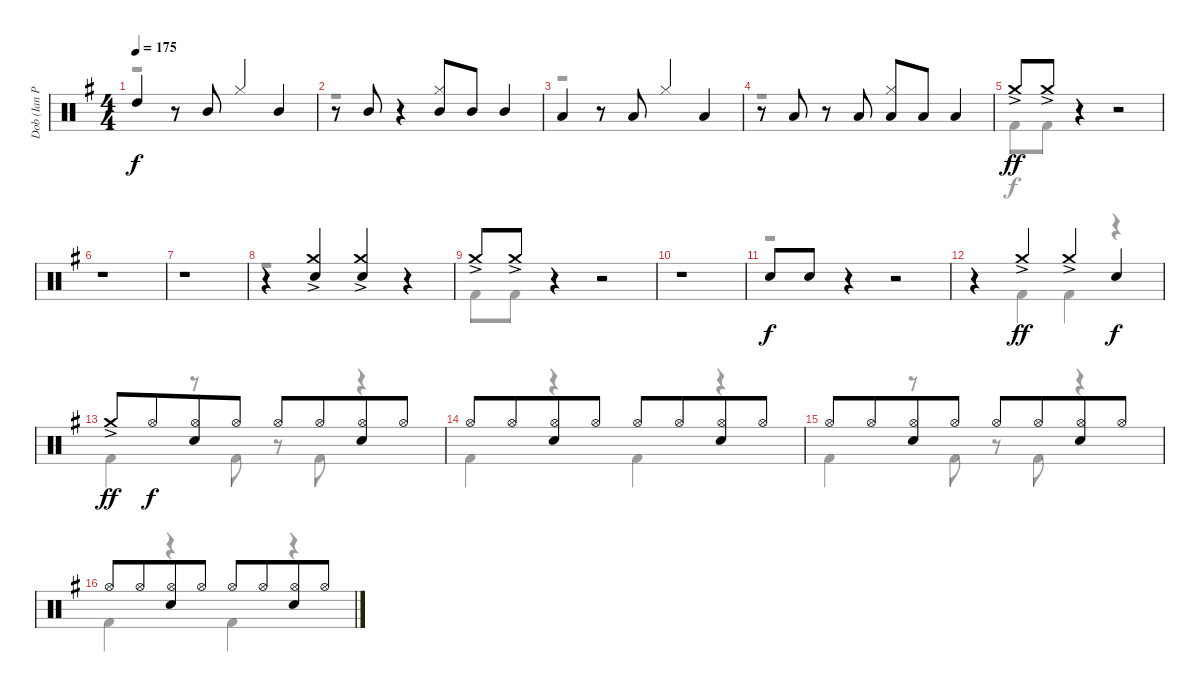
\track ("Dob (Ian Paice)" "Dob (Ian P") {instrument percussion}
\staff {score}
\articulation defaults
\voice
\ts (4 4)
\tempo 175
\clef neutral
\ks g "High Tom (hit)".4{dy f}
r.8 "Mid Tom (hit)".8 "Hi-Hat (closed)".4 "Mid Tom (hit)".4 |
r.8 "Mid Tom (hit)".8 r.4 ("Hi-Hat (closed)" "Mid Tom (hit)").8 "Mid Tom (hit)".8 "Mid Tom (hit)".4 |
"Low Tom (hit)".4 r.8 "Low Tom (hit)".8 "Hi-Hat (closed)".4 "Low Tom (hit)".4 |
r.8 "Low Tom (hit)".8 r.8 "Low Tom (hit)".8 ("Hi-Hat (closed)" "Low Tom (hit)").8 "Low Tom (hit)".8 "Low Tom (hit)".4 |
"Crash medium (hit)"{ac}.8{dy ff} "Crash medium (hit)"{ac}.8 r.4 r.2 |
r.1 |
r.1 |
r.4 ("Crash medium (hit)"{ac} "Electric Snare (hit)").4 ("Crash medium (hit)"{ac} "Electric Snare (hit)").4 r.4 |
"Crash medium (hit)"{ac}.8 "Crash medium (hit)"{ac}.8 r.4 r.2 |
r.1 |
"Electric Snare (hit)".8{dy f} "Electric Snare (hit)".8 r.4 r.2 |
r.4 "Crash medium (hit)"{ac}.4{dy ff} "Crash medium (hit)"{ac}.4 "Electric Snare (hit)".4{dy f} |
"Crash medium (hit)"{ac}.8{dy ff} "Hi-Hat (open)".8{dy f beam merge} ("Hi-Hat (open)" "Electric Snare (hit)").8 "Hi-Hat (open)".8 "Hi-Hat (open)".8 "Hi-Hat (open)".8{beam merge} ("Hi-Hat (open)" "Electric Snare (hit)").8 "Hi-Hat (open)".8 |
"Hi-Hat (open)".8 "Hi-Hat (open)".8{beam merge} ("Hi-Hat (open)" "Electric Snare (hit)").8 "Hi-Hat (open)".8 "Hi-Hat (open)".8 "Hi-Hat (open)".8{beam merge} ("Hi-Hat (open)" "Electric Snare (hit)").8 "Hi-Hat (open)".8 |
"Hi-Hat (open)".8 "Hi-Hat (open)".8{beam merge} ("Hi-Hat (open)" "Electric Snare (hit)").8 "Hi-Hat (open)".8 "Hi-Hat (open)".8 "Hi-Hat (open)".8{beam merge} ("Hi-Hat (open)" "Electric Snare (hit)").8 "Hi-Hat (open)".8 |
"Hi-Hat (open)".8 "Hi-Hat (open)".8{beam merge} ("Hi-Hat (open)" "Electric Snare (hit)").8 "Hi-Hat (open)".8 "Hi-Hat (open)".8 "Hi-Hat (open)".8{beam merge} ("Hi-Hat (open)" "Electric Snare (hit)").8 "Hi-Hat (open)".8
\voice
\clef neutral
\ottava regular
\simile none
\ks g
r.1{dy f} |
r.1 |
r.1 |
r.1 |
"Kick (hit) 2".8 "Kick (hit) 2".8 r.4 r.2 |
r.1 |
r.1 |
r.1 |
"Kick (hit) 2".8 "Kick (hit) 2".8 r.4 r.2 |
r.1 |
r.1 |
r.4 "Kick (hit) 2".4 "Kick (hit) 2".4 r.4 |
"Kick (hit) 2".4 r.8 "Kick (hit) 2".8 r.8 "Kick (hit) 2".8 r.4 |
"Kick (hit) 2".4 r.4 "Kick (hit) 2".4 r.4 |
"Kick (hit) 2".4 r.8 "Kick (hit) 2".8 r.8 "Kick (hit) 2".8 r.4 |
"Kick (hit) 2".4 r.4 "Kick (hit) 2".4 r.4
